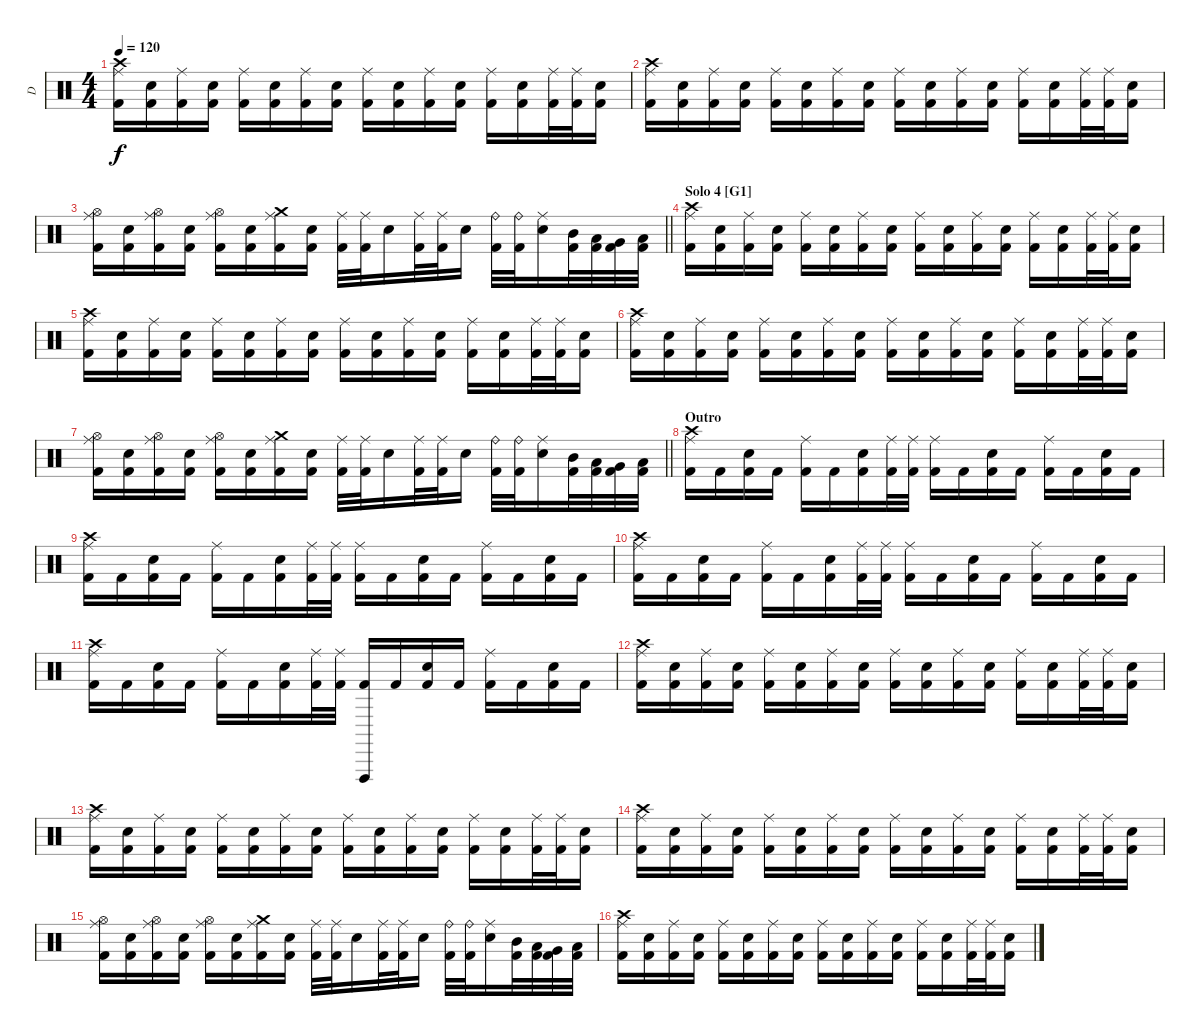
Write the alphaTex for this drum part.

\track ("D" "D") {instrument percussion}
\staff {score}
\articulation defaults
\ts (4 4)
\tempo 120
\clef neutral
\ks c
("Crash high (hit)" "Ride (middle)" "Kick (hit) 2").16{dy f} ("Electric Snare (hit)" "Kick (hit) 2").16 ("Ride (middle)" "Kick (hit) 2").16 ("Electric Snare (hit)" "Kick (hit) 2").16 ("Ride (middle)" "Kick (hit) 2").16 ("Electric Snare (hit)" "Kick (hit) 2").16 ("Ride (middle)" "Kick (hit) 2").16 ("Electric Snare (hit)" "Kick (hit) 2").16 ("Ride (middle)" "Kick (hit) 2").16 ("Electric Snare (hit)" "Kick (hit) 2").16 ("Ride (middle)" "Kick (hit) 2").16 ("Electric Snare (hit)" "Kick (hit) 2").16 ("Ride (middle)" "Kick (hit) 2").16 ("Electric Snare (hit)" "Kick (hit) 2").16 ("Ride (middle)" "Kick (hit) 2").32 ("Ride (middle)" "Kick (hit) 2").32 ("Electric Snare (hit)" "Kick (hit) 2").16 |
("Crash high (hit)" "Ride (middle)" "Kick (hit) 2").16 ("Electric Snare (hit)" "Kick (hit) 2").16 ("Ride (middle)" "Kick (hit) 2").16 ("Electric Snare (hit)" "Kick (hit) 2").16 ("Ride (middle)" "Kick (hit) 2").16 ("Electric Snare (hit)" "Kick (hit) 2").16 ("Ride (middle)" "Kick (hit) 2").16 ("Electric Snare (hit)" "Kick (hit) 2").16 ("Ride (middle)" "Kick (hit) 2").16 ("Electric Snare (hit)" "Kick (hit) 2").16 ("Ride (middle)" "Kick (hit) 2").16 ("Electric Snare (hit)" "Kick (hit) 2").16 ("Ride (middle)" "Kick (hit) 2").16 ("Electric Snare (hit)" "Kick (hit) 2").16 ("Ride (middle)" "Kick (hit) 2").32 ("Ride (middle)" "Kick (hit) 2").32 ("Electric Snare (hit)" "Kick (hit) 2").16 |
\barLineRight lightlight
("Hi-Hat (open)" "Ride (middle)" "Kick (hit) 2").16 ("Electric Snare (hit)" "Kick (hit) 2").16 ("Hi-Hat (open)" "Ride (middle)" "Kick (hit) 2").16 ("Electric Snare (hit)" "Kick (hit) 2").16 ("Hi-Hat (open)" "Ride (middle)" "Kick (hit) 2").16 ("Electric Snare (hit)" "Kick (hit) 2").16 ("Crash medium (hit)" "Ride (middle)" "Kick (hit) 2").16 ("Electric Snare (hit)" "Kick (hit) 2").16 ("Ride (middle)" "Kick (hit) 2").32 ("Ride (middle)" "Kick (hit) 2").32 "Electric Snare (hit)".16 ("Ride (middle)" "Kick (hit) 2").32 ("Ride (middle)" "Kick (hit) 2").32 "Electric Snare (hit)".16 ("Ride (bell)" "Kick (hit) 2").32 ("Ride (bell)" "Kick (hit) 2").32 ("Ride (middle)" "Electric Snare (hit)").16 ("Mid Tom (hit)" "Kick (hit) 2").32 ("Low Tom (hit)" "Kick (hit) 2").32 ("Very Low Tom (hit)" "Kick (hit) 2").32 ("Low Floor Tom (hit)" "Kick (hit) 2").32 |
\section ("" "Solo 4 [G1]")
("Crash high (hit)" "Ride (middle)" "Kick (hit) 2").16 ("Electric Snare (hit)" "Kick (hit) 2").16 ("Ride (middle)" "Kick (hit) 2").16 ("Electric Snare (hit)" "Kick (hit) 2").16 ("Ride (middle)" "Kick (hit) 2").16 ("Electric Snare (hit)" "Kick (hit) 2").16 ("Ride (middle)" "Kick (hit) 2").16 ("Electric Snare (hit)" "Kick (hit) 2").16 ("Ride (middle)" "Kick (hit) 2").16 ("Electric Snare (hit)" "Kick (hit) 2").16 ("Ride (middle)" "Kick (hit) 2").16 ("Electric Snare (hit)" "Kick (hit) 2").16 ("Ride (middle)" "Kick (hit) 2").16 ("Electric Snare (hit)" "Kick (hit) 2").16 ("Ride (middle)" "Kick (hit) 2").32 ("Ride (middle)" "Kick (hit) 2").32 ("Electric Snare (hit)" "Kick (hit) 2").16 |
("Crash high (hit)" "Ride (middle)" "Kick (hit) 2").16 ("Electric Snare (hit)" "Kick (hit) 2").16 ("Ride (middle)" "Kick (hit) 2").16 ("Electric Snare (hit)" "Kick (hit) 2").16 ("Ride (middle)" "Kick (hit) 2").16 ("Electric Snare (hit)" "Kick (hit) 2").16 ("Ride (middle)" "Kick (hit) 2").16 ("Electric Snare (hit)" "Kick (hit) 2").16 ("Ride (middle)" "Kick (hit) 2").16 ("Electric Snare (hit)" "Kick (hit) 2").16 ("Ride (middle)" "Kick (hit) 2").16 ("Electric Snare (hit)" "Kick (hit) 2").16 ("Ride (middle)" "Kick (hit) 2").16 ("Electric Snare (hit)" "Kick (hit) 2").16 ("Ride (middle)" "Kick (hit) 2").32 ("Ride (middle)" "Kick (hit) 2").32 ("Electric Snare (hit)" "Kick (hit) 2").16 |
("Crash high (hit)" "Ride (middle)" "Kick (hit) 2").16 ("Electric Snare (hit)" "Kick (hit) 2").16 ("Ride (middle)" "Kick (hit) 2").16 ("Electric Snare (hit)" "Kick (hit) 2").16 ("Ride (middle)" "Kick (hit) 2").16 ("Electric Snare (hit)" "Kick (hit) 2").16 ("Ride (middle)" "Kick (hit) 2").16 ("Electric Snare (hit)" "Kick (hit) 2").16 ("Ride (middle)" "Kick (hit) 2").16 ("Electric Snare (hit)" "Kick (hit) 2").16 ("Ride (middle)" "Kick (hit) 2").16 ("Electric Snare (hit)" "Kick (hit) 2").16 ("Ride (middle)" "Kick (hit) 2").16 ("Electric Snare (hit)" "Kick (hit) 2").16 ("Ride (middle)" "Kick (hit) 2").32 ("Ride (middle)" "Kick (hit) 2").32 ("Electric Snare (hit)" "Kick (hit) 2").16 |
\barLineRight lightlight
("Hi-Hat (open)" "Ride (middle)" "Kick (hit) 2").16 ("Electric Snare (hit)" "Kick (hit) 2").16 ("Hi-Hat (open)" "Ride (middle)" "Kick (hit) 2").16 ("Electric Snare (hit)" "Kick (hit) 2").16 ("Hi-Hat (open)" "Ride (middle)" "Kick (hit) 2").16 ("Electric Snare (hit)" "Kick (hit) 2").16 ("Crash medium (hit)" "Ride (middle)" "Kick (hit) 2").16 ("Electric Snare (hit)" "Kick (hit) 2").16 ("Ride (middle)" "Kick (hit) 2").32 ("Ride (middle)" "Kick (hit) 2").32 "Electric Snare (hit)".16 ("Ride (middle)" "Kick (hit) 2").32 ("Ride (middle)" "Kick (hit) 2").32 "Electric Snare (hit)".16 ("Ride (bell)" "Kick (hit) 2").32 ("Ride (bell)" "Kick (hit) 2").32 ("Ride (middle)" "Electric Snare (hit)").16 ("Mid Tom (hit)" "Kick (hit) 2").32 ("Low Tom (hit)" "Kick (hit) 2").32 ("Very Low Tom (hit)" "Kick (hit) 2").32 ("Low Floor Tom (hit)" "Kick (hit) 2").32 |
\section ("" "Outro")
("Crash high (hit)" "Ride (middle)" "Kick (hit) 2").16 "Kick (hit) 2".16 ("Electric Snare (hit)" "Kick (hit) 2").16 "Kick (hit) 2".16 ("Ride (middle)" "Kick (hit) 2").16 "Kick (hit) 2".16 ("Electric Snare (hit)" "Kick (hit) 2").16 ("Ride (middle)" "Kick (hit) 2").32 ("Ride (middle)" "Kick (hit) 2").32 ("Ride (middle)" "Kick (hit) 2").16 "Kick (hit) 2".16 ("Electric Snare (hit)" "Kick (hit) 2").16 "Kick (hit) 2".16 ("Ride (middle)" "Kick (hit) 2").16 "Kick (hit) 2".16 ("Electric Snare (hit)" "Kick (hit) 2").16 "Kick (hit) 2".16 |
("Crash high (hit)" "Ride (middle)" "Kick (hit) 2").16 "Kick (hit) 2".16 ("Electric Snare (hit)" "Kick (hit) 2").16 "Kick (hit) 2".16 ("Ride (middle)" "Kick (hit) 2").16 "Kick (hit) 2".16 ("Electric Snare (hit)" "Kick (hit) 2").16 ("Ride (middle)" "Kick (hit) 2").32 ("Ride (middle)" "Kick (hit) 2").32 ("Ride (middle)" "Kick (hit) 2").16 "Kick (hit) 2".16 ("Electric Snare (hit)" "Kick (hit) 2").16 "Kick (hit) 2".16 ("Ride (middle)" "Kick (hit) 2").16 "Kick (hit) 2".16 ("Electric Snare (hit)" "Kick (hit) 2").16 "Kick (hit) 2".16 |
("Crash high (hit)" "Ride (middle)" "Kick (hit) 2").16 "Kick (hit) 2".16 ("Electric Snare (hit)" "Kick (hit) 2").16 "Kick (hit) 2".16 ("Ride (middle)" "Kick (hit) 2").16 "Kick (hit) 2".16 ("Electric Snare (hit)" "Kick (hit) 2").16 ("Ride (middle)" "Kick (hit) 2").32 ("Ride (middle)" "Kick (hit) 2").32 ("Ride (middle)" "Kick (hit) 2").16 "Kick (hit) 2".16 ("Electric Snare (hit)" "Kick (hit) 2").16 "Kick (hit) 2".16 ("Ride (middle)" "Kick (hit) 2").16 "Kick (hit) 2".16 ("Electric Snare (hit)" "Kick (hit) 2").16 "Kick (hit) 2".16 |
("Crash high (hit)" "Ride (middle)" "Kick (hit) 2").16 "Kick (hit) 2".16 ("Electric Snare (hit)" "Kick (hit) 2").16 "Kick (hit) 2".16 ("Ride (middle)" "Kick (hit) 2").16 "Kick (hit) 2".16 ("Electric Snare (hit)" "Kick (hit) 2").16 ("Ride (middle)" "Kick (hit) 2").32 ("Ride (middle)" "Kick (hit) 2").32 ("Vibraslap (hit)" "Kick (hit) 2").16 "Kick (hit) 2".16 ("Electric Snare (hit)" "Kick (hit) 2").16 "Kick (hit) 2".16 ("Ride (middle)" "Kick (hit) 2").16 "Kick (hit) 2".16 ("Electric Snare (hit)" "Kick (hit) 2").16 "Kick (hit) 2".16 |
("Crash high (hit)" "Ride (middle)" "Kick (hit) 2").16 ("Electric Snare (hit)" "Kick (hit) 2").16 ("Ride (middle)" "Kick (hit) 2").16 ("Electric Snare (hit)" "Kick (hit) 2").16 ("Ride (middle)" "Kick (hit) 2").16 ("Electric Snare (hit)" "Kick (hit) 2").16 ("Ride (middle)" "Kick (hit) 2").16 ("Electric Snare (hit)" "Kick (hit) 2").16 ("Ride (middle)" "Kick (hit) 2").16 ("Electric Snare (hit)" "Kick (hit) 2").16 ("Ride (middle)" "Kick (hit) 2").16 ("Electric Snare (hit)" "Kick (hit) 2").16 ("Ride (middle)" "Kick (hit) 2").16 ("Electric Snare (hit)" "Kick (hit) 2").16 ("Ride (middle)" "Kick (hit) 2").32 ("Ride (middle)" "Kick (hit) 2").32 ("Electric Snare (hit)" "Kick (hit) 2").16 |
("Crash high (hit)" "Ride (middle)" "Kick (hit) 2").16 ("Electric Snare (hit)" "Kick (hit) 2").16 ("Ride (middle)" "Kick (hit) 2").16 ("Electric Snare (hit)" "Kick (hit) 2").16 ("Ride (middle)" "Kick (hit) 2").16 ("Electric Snare (hit)" "Kick (hit) 2").16 ("Ride (middle)" "Kick (hit) 2").16 ("Electric Snare (hit)" "Kick (hit) 2").16 ("Ride (middle)" "Kick (hit) 2").16 ("Electric Snare (hit)" "Kick (hit) 2").16 ("Ride (middle)" "Kick (hit) 2").16 ("Electric Snare (hit)" "Kick (hit) 2").16 ("Ride (middle)" "Kick (hit) 2").16 ("Electric Snare (hit)" "Kick (hit) 2").16 ("Ride (middle)" "Kick (hit) 2").32 ("Ride (middle)" "Kick (hit) 2").32 ("Electric Snare (hit)" "Kick (hit) 2").16 |
("Crash high (hit)" "Ride (middle)" "Kick (hit) 2").16 ("Electric Snare (hit)" "Kick (hit) 2").16 ("Ride (middle)" "Kick (hit) 2").16 ("Electric Snare (hit)" "Kick (hit) 2").16 ("Ride (middle)" "Kick (hit) 2").16 ("Electric Snare (hit)" "Kick (hit) 2").16 ("Ride (middle)" "Kick (hit) 2").16 ("Electric Snare (hit)" "Kick (hit) 2").16 ("Ride (middle)" "Kick (hit) 2").16 ("Electric Snare (hit)" "Kick (hit) 2").16 ("Ride (middle)" "Kick (hit) 2").16 ("Electric Snare (hit)" "Kick (hit) 2").16 ("Ride (middle)" "Kick (hit) 2").16 ("Electric Snare (hit)" "Kick (hit) 2").16 ("Ride (middle)" "Kick (hit) 2").32 ("Ride (middle)" "Kick (hit) 2").32 ("Electric Snare (hit)" "Kick (hit) 2").16 |
("Hi-Hat (open)" "Ride (middle)" "Kick (hit) 2").16 ("Electric Snare (hit)" "Kick (hit) 2").16 ("Hi-Hat (open)" "Ride (middle)" "Kick (hit) 2").16 ("Electric Snare (hit)" "Kick (hit) 2").16 ("Hi-Hat (open)" "Ride (middle)" "Kick (hit) 2").16 ("Electric Snare (hit)" "Kick (hit) 2").16 ("Crash medium (hit)" "Ride (middle)" "Kick (hit) 2").16 ("Electric Snare (hit)" "Kick (hit) 2").16 ("Ride (middle)" "Kick (hit) 2").32 ("Ride (middle)" "Kick (hit) 2").32 "Electric Snare (hit)".16 ("Ride (middle)" "Kick (hit) 2").32 ("Ride (middle)" "Kick (hit) 2").32 "Electric Snare (hit)".16 ("Ride (bell)" "Kick (hit) 2").32 ("Ride (bell)" "Kick (hit) 2").32 ("Ride (middle)" "Electric Snare (hit)").16 ("Mid Tom (hit)" "Kick (hit) 2").32 ("Low Tom (hit)" "Kick (hit) 2").32 ("Very Low Tom (hit)" "Kick (hit) 2").32 ("Low Floor Tom (hit)" "Kick (hit) 2").32 |
("Crash high (hit)" "Ride (middle)" "Kick (hit) 2").16 ("Electric Snare (hit)" "Kick (hit) 2").16 ("Ride (middle)" "Kick (hit) 2").16 ("Electric Snare (hit)" "Kick (hit) 2").16 ("Ride (middle)" "Kick (hit) 2").16 ("Electric Snare (hit)" "Kick (hit) 2").16 ("Ride (middle)" "Kick (hit) 2").16 ("Electric Snare (hit)" "Kick (hit) 2").16 ("Ride (middle)" "Kick (hit) 2").16 ("Electric Snare (hit)" "Kick (hit) 2").16 ("Ride (middle)" "Kick (hit) 2").16 ("Electric Snare (hit)" "Kick (hit) 2").16 ("Ride (middle)" "Kick (hit) 2").16 ("Electric Snare (hit)" "Kick (hit) 2").16 ("Ride (middle)" "Kick (hit) 2").32 ("Ride (middle)" "Kick (hit) 2").32 ("Electric Snare (hit)" "Kick (hit) 2").16
